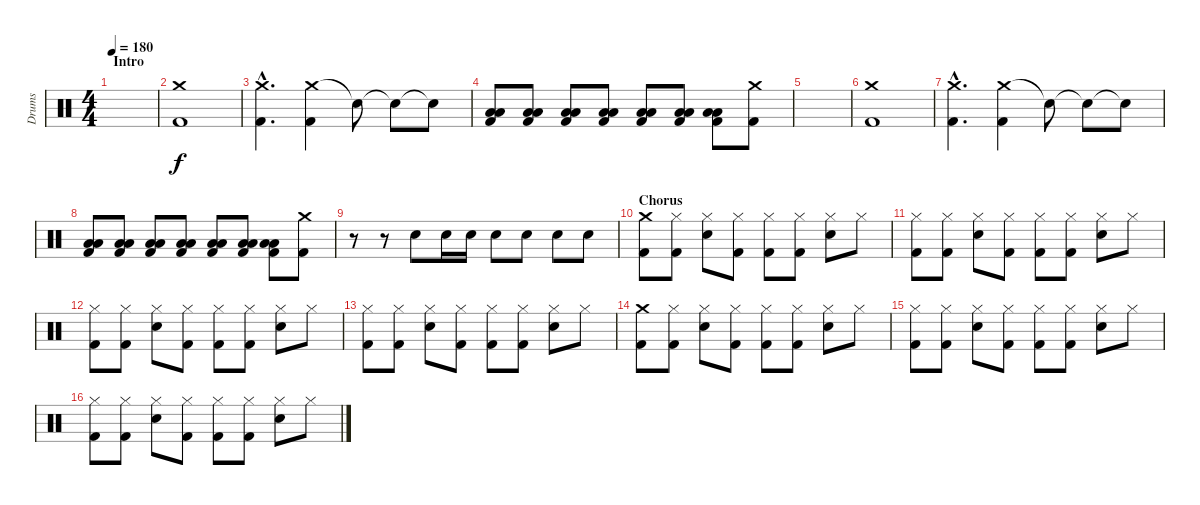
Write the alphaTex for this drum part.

\track ("Drums" "Drums") {instrument percussion}
\staff {score}
\articulation defaults
\ts (4 4)
\section ("" "Intro")
\tempo 180
\clef neutral
\ks c
|
("Crash medium (hit)" "Kick (hit) 2").1 |
("Crash medium (hit)"{hac} "Kick (hit) 2"{hac}).4{d} ("Crash medium (hit)" "Kick (hit) 2").4 "Snare (hit)"{t}.8 "Snare (hit)"{t}.8 "Snare (hit)"{t}.8 |
("Low Tom (hit)" "Low Floor Tom (hit)" "Kick (hit) 2").8 ("Low Tom (hit)" "Low Floor Tom (hit)" "Kick (hit) 2").8 ("Low Tom (hit)" "Low Floor Tom (hit)" "Kick (hit) 2").8 ("Low Tom (hit)" "Low Floor Tom (hit)" "Kick (hit) 2").8 ("Low Tom (hit)" "Low Floor Tom (hit)" "Kick (hit) 2").8 ("Low Tom (hit)" "Low Floor Tom (hit)" "Kick (hit) 2").8 ("Low Tom (hit)" "Low Floor Tom (hit)" "Kick (hit) 2").8 ("Crash medium (hit)" "Kick (hit) 2").8 |
|
("Crash medium (hit)" "Kick (hit) 2").1 |
("Crash medium (hit)"{hac} "Kick (hit) 2"{hac}).4{d} ("Crash medium (hit)" "Kick (hit) 2").4 "Snare (hit)"{t}.8 "Snare (hit)"{t}.8 "Snare (hit)"{t}.8 |
("Low Tom (hit)" "Low Floor Tom (hit)" "Kick (hit) 2").8 ("Low Tom (hit)" "Low Floor Tom (hit)" "Kick (hit) 2").8 ("Low Tom (hit)" "Low Floor Tom (hit)" "Kick (hit) 2").8 ("Low Tom (hit)" "Low Floor Tom (hit)" "Kick (hit) 2").8 ("Low Tom (hit)" "Low Floor Tom (hit)" "Kick (hit) 2").8 ("Low Tom (hit)" "Low Floor Tom (hit)" "Kick (hit) 2").8 ("Low Tom (hit)" "Low Floor Tom (hit)" "Kick (hit) 2").8 ("Crash medium (hit)" "Kick (hit) 2").8 |
r.8 r.8 "Electric Snare (hit)".8 "Electric Snare (hit)".16 "Electric Snare (hit)".16 "Electric Snare (hit)".8 "Electric Snare (hit)".8 "Electric Snare (hit)".8 "Electric Snare (hit)".8 |
\section ("" "Chorus")
("Crash medium (hit)" "Kick (hit) 2").8 ("Hi-Hat (closed)" "Kick (hit) 2").8 ("Hi-Hat (closed)" "Electric Snare (hit)").8 ("Hi-Hat (closed)" "Kick (hit) 2").8 ("Hi-Hat (closed)" "Kick (hit) 2").8 ("Hi-Hat (closed)" "Kick (hit) 2").8 ("Hi-Hat (closed)" "Electric Snare (hit)").8 "Hi-Hat (closed)".8 |
("Hi-Hat (closed)" "Kick (hit) 2").8 ("Hi-Hat (closed)" "Kick (hit) 2").8 ("Hi-Hat (closed)" "Electric Snare (hit)").8 ("Hi-Hat (closed)" "Kick (hit) 2").8 ("Hi-Hat (closed)" "Kick (hit) 2").8 ("Hi-Hat (closed)" "Kick (hit) 2").8 ("Hi-Hat (closed)" "Electric Snare (hit)").8 "Hi-Hat (closed)".8 |
("Hi-Hat (closed)" "Kick (hit) 2").8 ("Hi-Hat (closed)" "Kick (hit) 2").8 ("Hi-Hat (closed)" "Electric Snare (hit)").8 ("Hi-Hat (closed)" "Kick (hit) 2").8 ("Hi-Hat (closed)" "Kick (hit) 2").8 ("Hi-Hat (closed)" "Kick (hit) 2").8 ("Hi-Hat (closed)" "Electric Snare (hit)").8 "Hi-Hat (closed)".8 |
("Hi-Hat (closed)" "Kick (hit) 2").8 ("Hi-Hat (closed)" "Kick (hit) 2").8 ("Hi-Hat (closed)" "Electric Snare (hit)").8 ("Hi-Hat (closed)" "Kick (hit) 2").8 ("Hi-Hat (closed)" "Kick (hit) 2").8 ("Hi-Hat (closed)" "Kick (hit) 2").8 ("Hi-Hat (closed)" "Electric Snare (hit)").8 "Hi-Hat (closed)".8 |
("Crash medium (hit)" "Kick (hit) 2").8 ("Hi-Hat (closed)" "Kick (hit) 2").8 ("Hi-Hat (closed)" "Electric Snare (hit)").8 ("Hi-Hat (closed)" "Kick (hit) 2").8 ("Hi-Hat (closed)" "Kick (hit) 2").8 ("Hi-Hat (closed)" "Kick (hit) 2").8 ("Hi-Hat (closed)" "Electric Snare (hit)").8 "Hi-Hat (closed)".8 |
("Hi-Hat (closed)" "Kick (hit) 2").8 ("Hi-Hat (closed)" "Kick (hit) 2").8 ("Hi-Hat (closed)" "Electric Snare (hit)").8 ("Hi-Hat (closed)" "Kick (hit) 2").8 ("Hi-Hat (closed)" "Kick (hit) 2").8 ("Hi-Hat (closed)" "Kick (hit) 2").8 ("Hi-Hat (closed)" "Electric Snare (hit)").8 "Hi-Hat (closed)".8 |
("Hi-Hat (closed)" "Kick (hit) 2").8 ("Hi-Hat (closed)" "Kick (hit) 2").8 ("Hi-Hat (closed)" "Electric Snare (hit)").8 ("Hi-Hat (closed)" "Kick (hit) 2").8 ("Hi-Hat (closed)" "Kick (hit) 2").8 ("Hi-Hat (closed)" "Kick (hit) 2").8 ("Hi-Hat (closed)" "Electric Snare (hit)").8 "Hi-Hat (closed)".8
